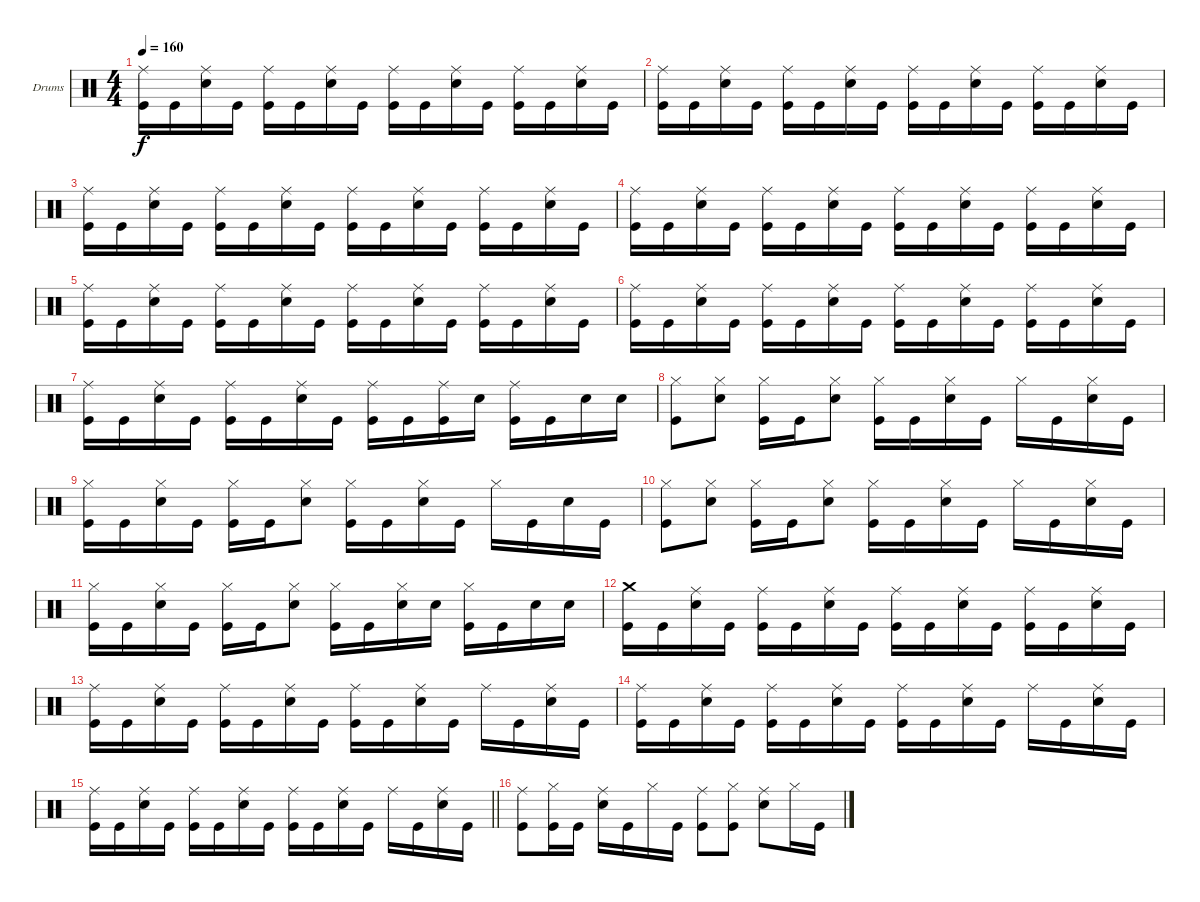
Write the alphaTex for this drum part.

\defaultSystemsLayout 4
\bracketExtendMode groupsimilarinstruments
\firstSystemTrackNameOrientation horizontal
\otherSystemsTrackNameOrientation horizontal
\track ("Drums" "Drums") {instrument percussion}
\staff {score}
\articulation defaults
\ts (4 4)
\tempo 160
\clef neutral
\scale
0.274038
\ks aminor
("Kick (hit)" "Ride (middle)").16{dy f} "Kick (hit)".16 ("Snare (hit) 2" "Ride (middle)").16 "Kick (hit)".16 ("Kick (hit)" "Ride (middle)").16 "Kick (hit)".16 ("Snare (hit) 2" "Ride (middle)").16 "Kick (hit)".16 ("Kick (hit)" "Ride (middle)").16 "Kick (hit)".16 ("Snare (hit) 2" "Ride (middle)").16 "Kick (hit)".16 ("Kick (hit)" "Ride (middle)").16 "Kick (hit)".16 ("Snare (hit) 2" "Ride (middle)").16 "Kick (hit)".16 |
\scale
0.274038 ("Kick (hit)" "Ride (middle)").16 "Kick (hit)".16 ("Snare (hit) 2" "Ride (middle)").16 "Kick (hit)".16 ("Kick (hit)" "Ride (middle)").16 "Kick (hit)".16 ("Snare (hit) 2" "Ride (middle)").16 "Kick (hit)".16 ("Kick (hit)" "Ride (middle)").16 "Kick (hit)".16 ("Snare (hit) 2" "Ride (middle)").16 "Kick (hit)".16 ("Kick (hit)" "Ride (middle)").16 "Kick (hit)".16 ("Snare (hit) 2" "Ride (middle)").16 "Kick (hit)".16 |
\scale
0.333333 ("Kick (hit)" "Ride (middle)").16 "Kick (hit)".16 ("Snare (hit) 2" "Ride (middle)").16 "Kick (hit)".16 ("Kick (hit)" "Ride (middle)").16 "Kick (hit)".16 ("Snare (hit) 2" "Ride (middle)").16 "Kick (hit)".16 ("Kick (hit)" "Ride (middle)").16 "Kick (hit)".16 ("Snare (hit) 2" "Ride (middle)").16 "Kick (hit)".16 ("Kick (hit)" "Ride (middle)").16 "Kick (hit)".16 ("Snare (hit) 2" "Ride (middle)").16 "Kick (hit)".16 |
\scale
0.333333 ("Kick (hit)" "Ride (middle)").16 "Kick (hit)".16 ("Snare (hit) 2" "Ride (middle)").16 "Kick (hit)".16 ("Kick (hit)" "Ride (middle)").16 "Kick (hit)".16 ("Snare (hit) 2" "Ride (middle)").16 "Kick (hit)".16 ("Kick (hit)" "Ride (middle)").16 "Kick (hit)".16 ("Snare (hit) 2" "Ride (middle)").16 "Kick (hit)".16 ("Kick (hit)" "Ride (middle)").16 "Kick (hit)".16 ("Snare (hit) 2" "Ride (middle)").16 "Kick (hit)".16 |
\scale
0.333333 ("Kick (hit)" "Ride (middle)").16 "Kick (hit)".16 ("Snare (hit) 2" "Ride (middle)").16 "Kick (hit)".16 ("Kick (hit)" "Ride (middle)").16 "Kick (hit)".16 ("Snare (hit) 2" "Ride (middle)").16 "Kick (hit)".16 ("Kick (hit)" "Ride (middle)").16 "Kick (hit)".16 ("Snare (hit) 2" "Ride (middle)").16 "Kick (hit)".16 ("Kick (hit)" "Ride (middle)").16 "Kick (hit)".16 ("Snare (hit) 2" "Ride (middle)").16 "Kick (hit)".16 |
\scale
0.333333 ("Kick (hit)" "Ride (middle)").16 "Kick (hit)".16 ("Snare (hit) 2" "Ride (middle)").16 "Kick (hit)".16 ("Kick (hit)" "Ride (middle)").16 "Kick (hit)".16 ("Snare (hit) 2" "Ride (middle)").16 "Kick (hit)".16 ("Kick (hit)" "Ride (middle)").16 "Kick (hit)".16 ("Snare (hit) 2" "Ride (middle)").16 "Kick (hit)".16 ("Kick (hit)" "Ride (middle)").16 "Kick (hit)".16 ("Snare (hit) 2" "Ride (middle)").16 "Kick (hit)".16 |
\scale
0.333333 ("Kick (hit)" "Ride (middle)").16 "Kick (hit)".16 ("Snare (hit) 2" "Ride (middle)").16 "Kick (hit)".16 ("Kick (hit)" "Ride (middle)").16 "Kick (hit)".16 ("Snare (hit) 2" "Ride (middle)").16 "Kick (hit)".16 ("Ride (middle)" "Kick (hit)").16 "Kick (hit)".16 ("Kick (hit)" "Ride (middle)").16 "Snare (hit) 2".16 ("Kick (hit)" "Ride (middle)").16 "Kick (hit)".16 "Snare (hit) 2".16 "Snare (hit) 2".16 |
\scale
0.333333 ("Kick (hit)" "Hi-Hat (closed)").8 ("Snare (hit) 2" "Hi-Hat (closed)").8 ("Kick (hit)" "Hi-Hat (closed)").16 "Kick (hit)".16 ("Snare (hit) 2" "Hi-Hat (closed)").8 ("Kick (hit)" "Hi-Hat (closed)").16 "Kick (hit)".16 ("Snare (hit) 2" "Hi-Hat (closed)").16 "Kick (hit)".16 "Hi-Hat (closed)".16 "Kick (hit)".16 ("Snare (hit) 2" "Hi-Hat (closed)").16 "Kick (hit)".16 |
\scale
0.333333 ("Kick (hit)" "Hi-Hat (closed)").16 "Kick (hit)".16 ("Snare (hit) 2" "Hi-Hat (closed)").16 "Kick (hit)".16 ("Kick (hit)" "Hi-Hat (closed)").16 "Kick (hit)".16 ("Snare (hit) 2" "Hi-Hat (closed)").8 ("Kick (hit)" "Hi-Hat (closed)").16 "Kick (hit)".16 ("Snare (hit) 2" "Hi-Hat (closed)").16 "Kick (hit)".16 "Hi-Hat (closed)".16 "Kick (hit)".16 "Snare (hit) 2".16 "Kick (hit)".16 |
\scale
0.333333 ("Kick (hit)" "Hi-Hat (closed)").8 ("Snare (hit) 2" "Hi-Hat (closed)").8 ("Kick (hit)" "Hi-Hat (closed)").16 "Kick (hit)".16 ("Snare (hit) 2" "Hi-Hat (closed)").8 ("Kick (hit)" "Hi-Hat (closed)").16 "Kick (hit)".16 ("Snare (hit) 2" "Hi-Hat (closed)").16 "Kick (hit)".16 "Hi-Hat (closed)".16 "Kick (hit)".16 ("Snare (hit) 2" "Hi-Hat (closed)").16 "Kick (hit)".16 |
\scale
0.333333 ("Kick (hit)" "Hi-Hat (closed)").16 "Kick (hit)".16 ("Snare (hit) 2" "Hi-Hat (closed)").16 "Kick (hit)".16 ("Kick (hit)" "Hi-Hat (closed)").16 "Kick (hit)".16 ("Snare (hit) 2" "Hi-Hat (closed)").8 ("Kick (hit)" "Hi-Hat (closed)").16 "Kick (hit)".16 ("Snare (hit) 2" "Hi-Hat (closed)").16 "Snare (hit) 2".16 ("Hi-Hat (closed)" "Kick (hit)").16 "Kick (hit)".16 "Snare (hit) 2".16 "Snare (hit) 2".16 |
\scale
0.333333 ("Kick (hit)" "Crash medium (hit)").16 "Kick (hit)".16 ("Snare (hit) 2" "Ride (middle)").16 "Kick (hit)".16 ("Kick (hit)" "Ride (middle)").16 "Kick (hit)".16 ("Snare (hit) 2" "Ride (middle)").16 "Kick (hit)".16 ("Kick (hit)" "Ride (middle)").16 "Kick (hit)".16 ("Snare (hit) 2" "Ride (middle)").16 "Kick (hit)".16 ("Kick (hit)" "Ride (middle)").16 "Kick (hit)".16 ("Snare (hit) 2" "Ride (middle)").16 "Kick (hit)".16 |
\scale
0.333333 ("Kick (hit)" "Ride (middle)").16 "Kick (hit)".16 ("Snare (hit) 2" "Ride (middle)").16 "Kick (hit)".16 ("Kick (hit)" "Ride (middle)").16 "Kick (hit)".16 ("Snare (hit) 2" "Ride (middle)").16 "Kick (hit)".16 ("Kick (hit)" "Ride (middle)").16 "Kick (hit)".16 ("Snare (hit) 2" "Ride (middle)").16 "Kick (hit)".16 "Ride (middle)".16 "Kick (hit)".16 ("Snare (hit) 2" "Ride (middle)").16 "Kick (hit)".16 |
\scale
0.333333 ("Kick (hit)" "Ride (middle)").16 "Kick (hit)".16 ("Snare (hit) 2" "Ride (middle)").16 "Kick (hit)".16 ("Kick (hit)" "Ride (middle)").16 "Kick (hit)".16 ("Snare (hit) 2" "Ride (middle)").16 "Kick (hit)".16 ("Kick (hit)" "Ride (middle)").16 "Kick (hit)".16 ("Snare (hit) 2" "Ride (middle)").16 "Kick (hit)".16 "Ride (middle)".16 "Kick (hit)".16 ("Snare (hit) 2" "Ride (middle)").16 "Kick (hit)".16 |
\scale
0.333333
\barLineRight lightlight
("Kick (hit)" "Ride (middle)").16 "Kick (hit)".16 ("Snare (hit) 2" "Ride (middle)").16 "Kick (hit)".16 ("Kick (hit)" "Ride (middle)").16 "Kick (hit)".16 ("Snare (hit) 2" "Ride (middle)").16 "Kick (hit)".16 ("Kick (hit)" "Ride (middle)").16 "Kick (hit)".16 ("Snare (hit) 2" "Ride (middle)").16 "Kick (hit)".16 "Ride (middle)".16 "Kick (hit)".16 ("Snare (hit) 2" "Ride (middle)").16 "Kick (hit)".16 |
\scale
0.333333 ("Kick (hit)" "Ride (middle)").8 ("Kick (hit)" "Hi-Hat (closed)").16 "Kick (hit)".16 ("Snare (hit) 2" "Ride (middle)").16 "Kick (hit)".16 "Hi-Hat (closed)".16 "Kick (hit)".16 ("Kick (hit)" "Ride (middle)").8 ("Kick (hit)" "Hi-Hat (closed)").8 ("Snare (hit) 2" "Ride (middle)").8 "Hi-Hat (closed)".16 "Kick (hit)".16
